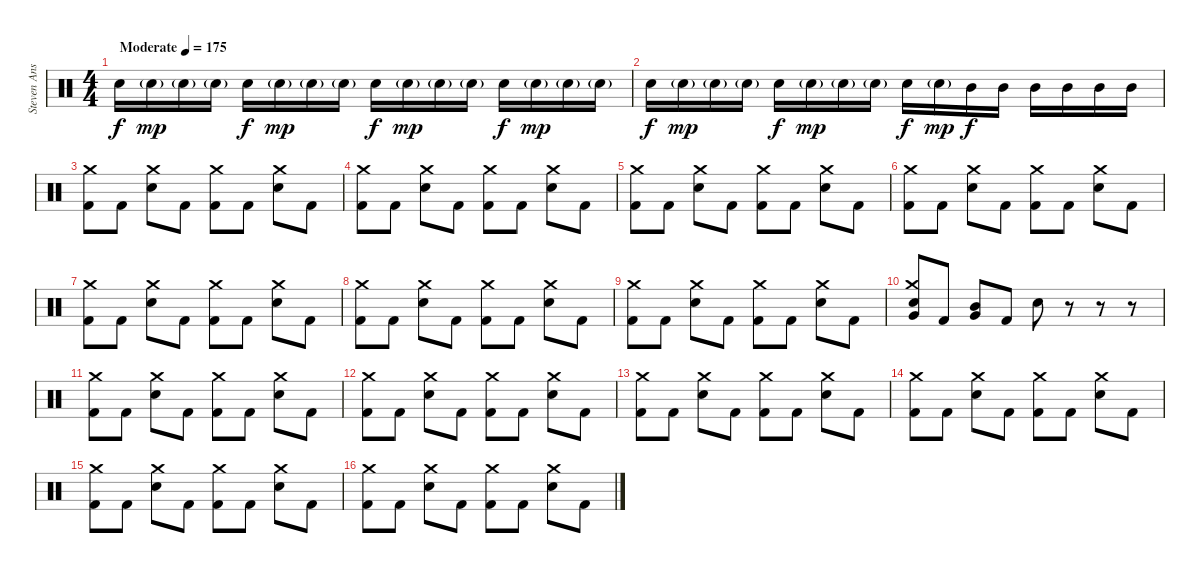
\track ("Steven Ansell" "Steven Ans") {instrument percussion}
\staff {score}
\articulation defaults
\ts (4 4)
\tempo (175 "Moderate")
\clef neutral
\ks c "Electric Snare (hit)".16{dy f} "Electric Snare (hit)"{g}.16{dy mp} "Electric Snare (hit)"{g}.16 "Electric Snare (hit)"{g}.16 "Electric Snare (hit)".16{dy f} "Electric Snare (hit)"{g}.16{dy mp} "Electric Snare (hit)"{g}.16 "Electric Snare (hit)"{g}.16 "Electric Snare (hit)".16{dy f} "Electric Snare (hit)"{g}.16{dy mp} "Electric Snare (hit)"{g}.16 "Electric Snare (hit)"{g}.16 "Electric Snare (hit)".16{dy f} "Electric Snare (hit)"{g}.16{dy mp} "Electric Snare (hit)"{g}.16 "Electric Snare (hit)"{g}.16
|
"Electric Snare (hit)".16{dy f} "Electric Snare (hit)"{g}.16{dy mp} "Electric Snare (hit)"{g}.16 "Electric Snare (hit)"{g}.16 "Electric Snare (hit)".16{dy f} "Electric Snare (hit)"{g}.16{dy mp} "Electric Snare (hit)"{g}.16 "Electric Snare (hit)"{g}.16 "Electric Snare (hit)".16{dy f} "Electric Snare (hit)"{g}.16{dy mp} "Mid Tom (hit)".16{dy f} "Mid Tom (hit)".16 "Mid Tom (hit)".16 "Mid Tom (hit)".16 "Mid Tom (hit)".16 "Mid Tom (hit)".16 |
("Crash medium (hit)" "Kick (hit) 2").8 "Kick (hit) 2".8 ("Crash medium (hit)" "Electric Snare (hit)").8 "Kick (hit) 2".8 ("Crash medium (hit)" "Kick (hit) 2").8 "Kick (hit) 2".8 ("Crash medium (hit)" "Electric Snare (hit)").8 "Kick (hit) 2".8 |
("Crash medium (hit)" "Kick (hit) 2").8 "Kick (hit) 2".8 ("Crash medium (hit)" "Electric Snare (hit)").8 "Kick (hit) 2".8 ("Crash medium (hit)" "Kick (hit) 2").8 "Kick (hit) 2".8 ("Crash medium (hit)" "Electric Snare (hit)").8 "Kick (hit) 2".8 |
("Crash medium (hit)" "Kick (hit) 2").8 "Kick (hit) 2".8 ("Crash medium (hit)" "Electric Snare (hit)").8 "Kick (hit) 2".8 ("Crash medium (hit)" "Kick (hit) 2").8 "Kick (hit) 2".8 ("Crash medium (hit)" "Electric Snare (hit)").8 "Kick (hit) 2".8 |
("Crash medium (hit)" "Kick (hit) 2").8 "Kick (hit) 2".8 ("Crash medium (hit)" "Electric Snare (hit)").8 "Kick (hit) 2".8 ("Crash medium (hit)" "Kick (hit) 2").8 "Kick (hit) 2".8 ("Crash medium (hit)" "Electric Snare (hit)").8 "Kick (hit) 2".8 |
("Crash medium (hit)" "Kick (hit) 2").8 "Kick (hit) 2".8 ("Crash medium (hit)" "Electric Snare (hit)").8 "Kick (hit) 2".8 ("Crash medium (hit)" "Kick (hit) 2").8 "Kick (hit) 2".8 ("Crash medium (hit)" "Electric Snare (hit)").8 "Kick (hit) 2".8 |
("Crash medium (hit)" "Kick (hit) 2").8 "Kick (hit) 2".8 ("Crash medium (hit)" "Electric Snare (hit)").8 "Kick (hit) 2".8 ("Crash medium (hit)" "Kick (hit) 2").8 "Kick (hit) 2".8 ("Crash medium (hit)" "Electric Snare (hit)").8 "Kick (hit) 2".8 |
("Crash medium (hit)" "Kick (hit) 2").8 "Kick (hit) 2".8 ("Crash medium (hit)" "Electric Snare (hit)").8 "Kick (hit) 2".8 ("Crash medium (hit)" "Kick (hit) 2").8 "Kick (hit) 2".8 ("Crash medium (hit)" "Electric Snare (hit)").8 "Kick (hit) 2".8 |
("Crash medium (hit)" "Electric Snare (hit)" "Very Low Tom (hit)").8 "Kick (hit) 2".8 ("Mid Tom (hit)" "Very Low Tom (hit)").8 "Kick (hit) 2".8 "Electric Snare (hit)".8 r.8 r.8 r.8 |
("Crash medium (hit)" "Kick (hit) 2").8 "Kick (hit) 2".8 ("Crash medium (hit)" "Electric Snare (hit)").8 "Kick (hit) 2".8 ("Crash medium (hit)" "Kick (hit) 2").8 "Kick (hit) 2".8 ("Crash medium (hit)" "Electric Snare (hit)").8 "Kick (hit) 2".8 |
("Crash medium (hit)" "Kick (hit) 2").8 "Kick (hit) 2".8 ("Crash medium (hit)" "Electric Snare (hit)").8 "Kick (hit) 2".8 ("Crash medium (hit)" "Kick (hit) 2").8 "Kick (hit) 2".8 ("Crash medium (hit)" "Electric Snare (hit)").8 "Kick (hit) 2".8 |
("Crash medium (hit)" "Kick (hit) 2").8 "Kick (hit) 2".8 ("Crash medium (hit)" "Electric Snare (hit)").8 "Kick (hit) 2".8 ("Crash medium (hit)" "Kick (hit) 2").8 "Kick (hit) 2".8 ("Crash medium (hit)" "Electric Snare (hit)").8 "Kick (hit) 2".8 |
("Crash medium (hit)" "Kick (hit) 2").8 "Kick (hit) 2".8 ("Crash medium (hit)" "Electric Snare (hit)").8 "Kick (hit) 2".8 ("Crash medium (hit)" "Kick (hit) 2").8 "Kick (hit) 2".8 ("Crash medium (hit)" "Electric Snare (hit)").8 "Kick (hit) 2".8 |
("Crash medium (hit)" "Kick (hit) 2").8 "Kick (hit) 2".8 ("Crash medium (hit)" "Electric Snare (hit)").8 "Kick (hit) 2".8 ("Crash medium (hit)" "Kick (hit) 2").8 "Kick (hit) 2".8 ("Crash medium (hit)" "Electric Snare (hit)").8 "Kick (hit) 2".8 |
("Crash medium (hit)" "Kick (hit) 2").8 "Kick (hit) 2".8 ("Crash medium (hit)" "Electric Snare (hit)").8 "Kick (hit) 2".8 ("Crash medium (hit)" "Kick (hit) 2").8 "Kick (hit) 2".8 ("Crash medium (hit)" "Electric Snare (hit)").8 "Kick (hit) 2".8
